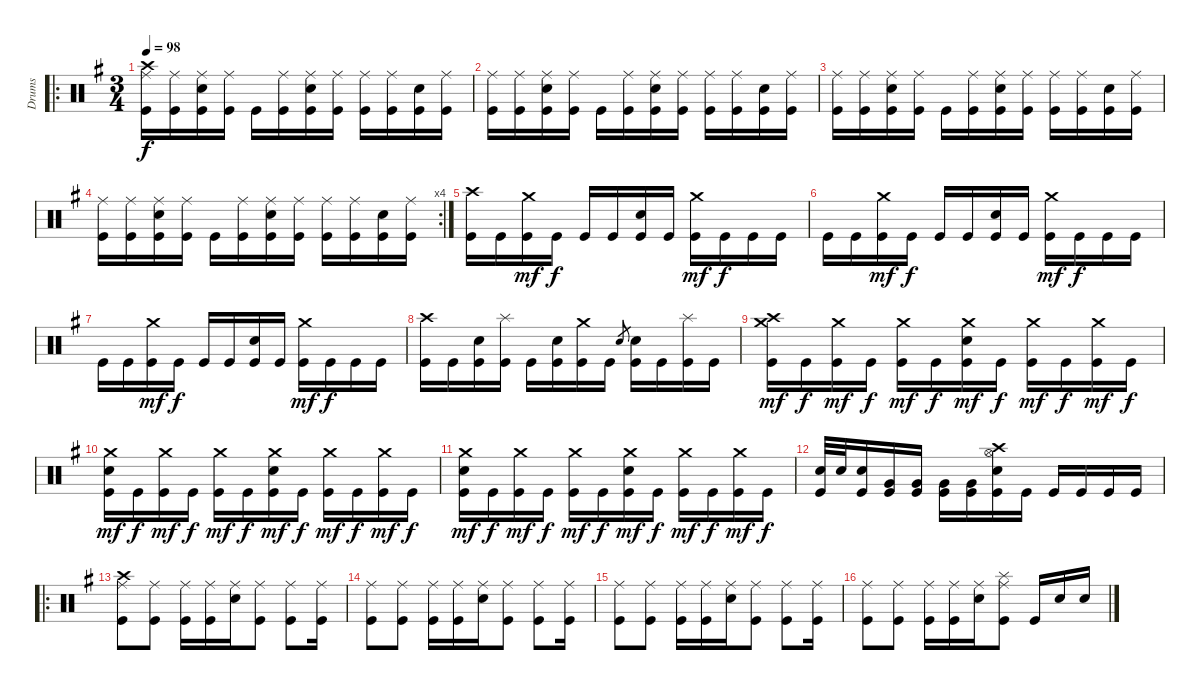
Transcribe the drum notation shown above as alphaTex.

\track ("Drums" "Drums") {instrument percussion}
\staff {score}
\articulation defaults
\ro
\ts (3 4)
\tempo 98
\clef neutral
\ks eminor
("Crash high (hit)" "Ride (middle)" "Kick (hit)").16{dy f} ("Ride (middle)" "Kick (hit)").16 ("Ride (middle)" "Electric Snare (hit)" "Kick (hit)").16 ("Ride (middle)" "Kick (hit)").16 "Kick (hit)".16 ("Ride (middle)" "Kick (hit)").16 ("Ride (middle)" "Electric Snare (hit)" "Kick (hit)").16 ("Ride (middle)" "Kick (hit)").16 ("Ride (middle)" "Kick (hit)").16 ("Ride (middle)" "Kick (hit)").16 ("Electric Snare (hit)" "Kick (hit)").16 ("Ride (middle)" "Kick (hit)").16 |
("Ride (middle)" "Kick (hit)").16 ("Ride (middle)" "Kick (hit)").16 ("Ride (middle)" "Electric Snare (hit)" "Kick (hit)").16 ("Ride (middle)" "Kick (hit)").16 "Kick (hit)".16 ("Ride (middle)" "Kick (hit)").16 ("Ride (middle)" "Electric Snare (hit)" "Kick (hit)").16 ("Ride (middle)" "Kick (hit)").16 ("Ride (middle)" "Kick (hit)").16 ("Ride (middle)" "Kick (hit)").16 ("Electric Snare (hit)" "Kick (hit)").16 ("Ride (middle)" "Kick (hit)").16 |
("Ride (middle)" "Kick (hit)").16 ("Ride (middle)" "Kick (hit)").16 ("Ride (middle)" "Electric Snare (hit)" "Kick (hit)").16 ("Ride (middle)" "Kick (hit)").16 "Kick (hit)".16 ("Ride (middle)" "Kick (hit)").16 ("Ride (middle)" "Electric Snare (hit)" "Kick (hit)").16 ("Ride (middle)" "Kick (hit)").16 ("Ride (middle)" "Kick (hit)").16 ("Ride (middle)" "Kick (hit)").16 ("Electric Snare (hit)" "Kick (hit)").16 ("Ride (middle)" "Kick (hit)").16 |
\rc 4
("Ride (middle)" "Kick (hit)").16 ("Ride (middle)" "Kick (hit)").16 ("Ride (middle)" "Electric Snare (hit)" "Kick (hit)").16 ("Ride (middle)" "Kick (hit)").16 "Kick (hit)".16 ("Ride (middle)" "Kick (hit)").16 ("Ride (middle)" "Electric Snare (hit)" "Kick (hit)").16 ("Ride (middle)" "Kick (hit)").16 ("Ride (middle)" "Kick (hit)").16 ("Ride (middle)" "Kick (hit)").16 ("Electric Snare (hit)" "Kick (hit)").16 ("Ride (middle)" "Kick (hit)").16 |
("Crash high (hit)" "Kick (hit)").16 "Kick (hit)".16 ("Crash medium (hit)" "Kick (hit)").16{dy mf} "Kick (hit)".16{dy f} "Kick (hit)".16 "Kick (hit)".16 ("Electric Snare (hit)" "Kick (hit)").16 "Kick (hit)".16 ("Crash medium (hit)" "Kick (hit)").16{dy mf} "Kick (hit)".16{dy f} "Kick (hit)".16 "Kick (hit)".16 |
"Kick (hit)".16 "Kick (hit)".16 ("Crash medium (hit)" "Kick (hit)").16{dy mf} "Kick (hit)".16{dy f} "Kick (hit)".16 "Kick (hit)".16 ("Electric Snare (hit)" "Kick (hit)").16 "Kick (hit)".16 ("Crash medium (hit)" "Kick (hit)").16{dy mf} "Kick (hit)".16{dy f} "Kick (hit)".16 "Kick (hit)".16 |
"Kick (hit)".16 "Kick (hit)".16 ("Crash medium (hit)" "Kick (hit)").16{dy mf} "Kick (hit)".16{dy f} "Kick (hit)".16 "Kick (hit)".16 ("Electric Snare (hit)" "Kick (hit)").16 "Kick (hit)".16 ("Crash medium (hit)" "Kick (hit)").16{dy mf} "Kick (hit)".16{dy f} "Kick (hit)".16 "Kick (hit)".16 |
("Crash high (hit)" "Kick (hit)").16 "Kick (hit)".16 ("Electric Snare (hit)" "Kick (hit)").16 ("Splash (hit)" "Kick (hit)").16 "Kick (hit)".16 ("Electric Snare (hit)" "Kick (hit)").16 ("Crash medium (hit)" "Kick (hit)").16 "Kick (hit)".16 "Electric Snare (hit)".8{gr} ("Electric Snare (hit)" "Kick (hit)").16 "Kick (hit)".16 ("Splash (hit)" "Kick (hit)").16 "Kick (hit)".16 |
("Crash high (hit)" "Crash medium (hit)" "Kick (hit)").16{dy mf} "Kick (hit)".16{dy f} ("Crash medium (hit)" "Kick (hit)").16{dy mf} "Kick (hit)".16{dy f} ("Crash medium (hit)" "Kick (hit)").16{dy mf} "Kick (hit)".16{dy f} ("Crash medium (hit)" "Electric Snare (hit)" "Kick (hit)").16{dy mf} "Kick (hit)".16{dy f} ("Crash medium (hit)" "Kick (hit)").16{dy mf} "Kick (hit)".16{dy f} ("Crash medium (hit)" "Kick (hit)").16{dy mf} "Kick (hit)".16{dy f} |
("Crash medium (hit)" "Electric Snare (hit)" "Kick (hit)").16{dy mf} "Kick (hit)".16{dy f} ("Crash medium (hit)" "Kick (hit)").16{dy mf} "Kick (hit)".16{dy f} ("Crash medium (hit)" "Kick (hit)").16{dy mf} "Kick (hit)".16{dy f} ("Crash medium (hit)" "Electric Snare (hit)" "Kick (hit)").16{dy mf} "Kick (hit)".16{dy f} ("Crash medium (hit)" "Kick (hit)").16{dy mf} "Kick (hit)".16{dy f} ("Crash medium (hit)" "Kick (hit)").16{dy mf} "Kick (hit)".16{dy f} |
("Crash medium (hit)" "Electric Snare (hit)" "Kick (hit)").16{dy mf} "Kick (hit)".16{dy f} ("Crash medium (hit)" "Kick (hit)").16{dy mf} "Kick (hit)".16{dy f} ("Crash medium (hit)" "Kick (hit)").16{dy mf} "Kick (hit)".16{dy f} ("Crash medium (hit)" "Electric Snare (hit)" "Kick (hit)").16{dy mf} "Kick (hit)".16{dy f} ("Crash medium (hit)" "Kick (hit)").16{dy mf} "Kick (hit)".16{dy f} ("Crash medium (hit)" "Kick (hit)").16{dy mf} "Kick (hit)".16{dy f} |
("Electric Snare (hit)" "Kick (hit)").32 "Electric Snare (hit)".32 ("Electric Snare (hit)" "Kick (hit)").16 ("Very Low Tom (hit)" "Kick (hit)").16 ("Very Low Tom (hit)" "Kick (hit)").16 ("Very Low Tom (hit)" "Kick (hit)").16 ("Very Low Tom (hit)" "Kick (hit)").16 ("Crash high (hit)" "Hi-Hat (open)" "Electric Snare (hit)" "Kick (hit)").16 "Kick (hit)".16 "Kick (hit)".16 "Kick (hit)".16 "Kick (hit)".16 "Kick (hit)".16 |
\ro
("Crash high (hit)" "Ride (middle)" "Kick (hit)").8 ("Ride (middle)" "Kick (hit)").8 ("Ride (middle)" "Kick (hit)").16 ("Ride (middle)" "Kick (hit)").16 ("Ride (middle)" "Electric Snare (hit)").16 ("Ride (middle)" "Kick (hit)").8 ("Ride (middle)" "Kick (hit)").8 ("Ride (middle)" "Kick (hit)").16 |
("Ride (middle)" "Kick (hit)").8 ("Ride (middle)" "Kick (hit)").8 ("Ride (middle)" "Kick (hit)").16 ("Ride (middle)" "Kick (hit)").16 ("Ride (middle)" "Electric Snare (hit)").16 ("Ride (middle)" "Kick (hit)").8 ("Ride (middle)" "Kick (hit)").8 ("Ride (middle)" "Kick (hit)").16 |
("Ride (middle)" "Kick (hit)").8 ("Ride (middle)" "Kick (hit)").8 ("Ride (middle)" "Kick (hit)").16 ("Ride (middle)" "Kick (hit)").16 ("Ride (middle)" "Electric Snare (hit)").16 ("Ride (middle)" "Kick (hit)").8 ("Ride (middle)" "Kick (hit)").8 ("Ride (middle)" "Kick (hit)").16 |
("Ride (middle)" "Kick (hit)").8 ("Ride (middle)" "Kick (hit)").8 ("Ride (middle)" "Kick (hit)").16 ("Ride (middle)" "Kick (hit)").16 ("Ride (middle)" "Electric Snare (hit)").16 ("Splash (hit)" "Ride (middle)" "Kick (hit)").8 "Kick (hit)".16 "Electric Snare (hit)".16 "Electric Snare (hit)".16
